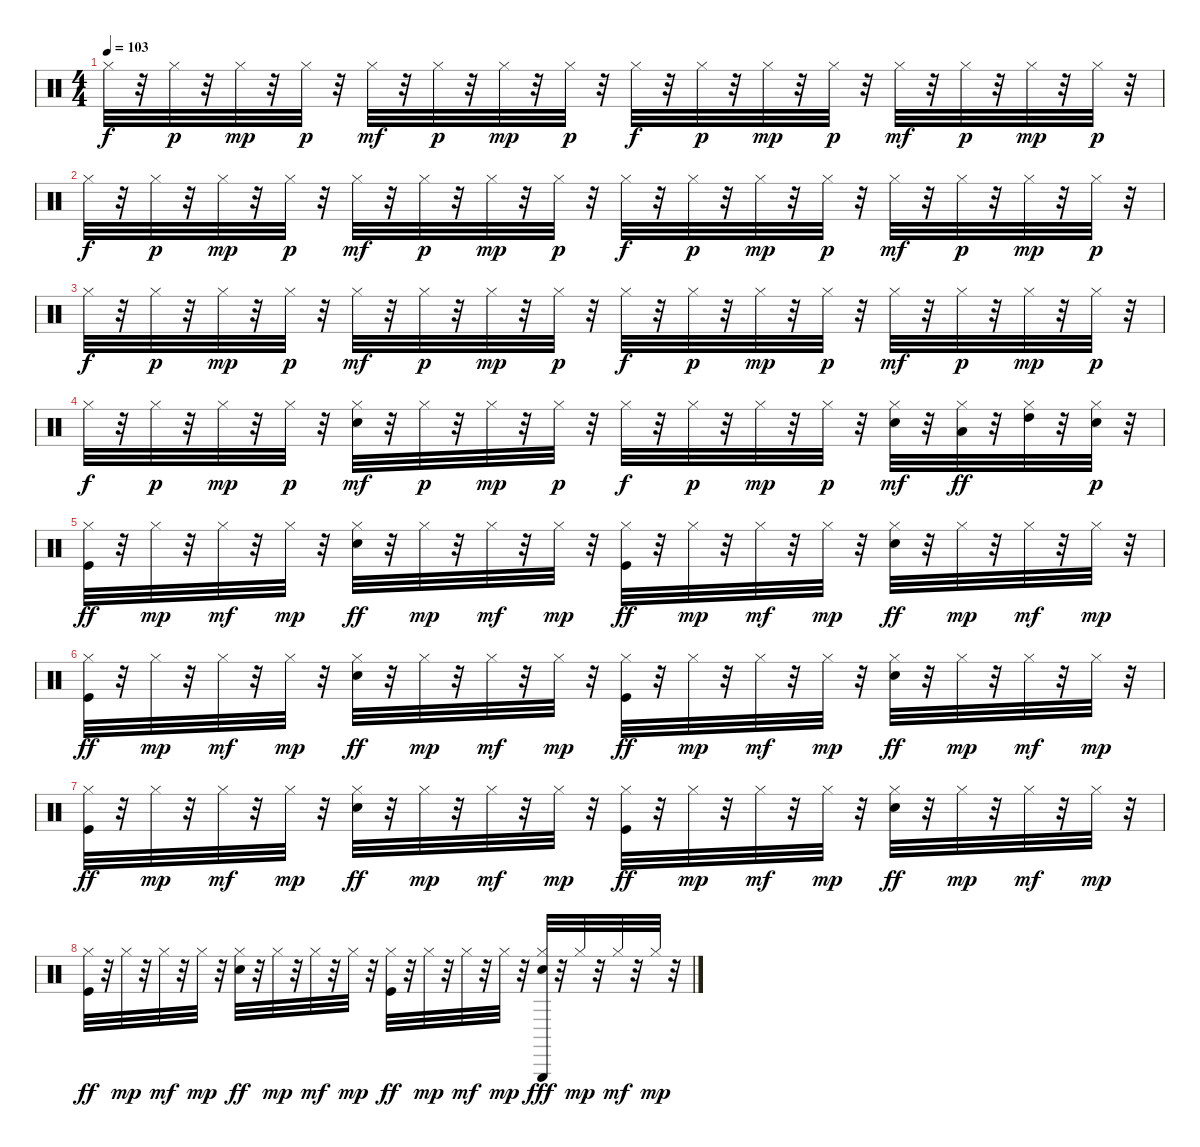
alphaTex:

\track "" {instrument percussion}
\staff {score}
\articulation defaults
\ts (4 4)
\tempo 103
\clef neutral
\ks c "Hi-Hat (closed)".32{dy f}
r.32 "Hi-Hat (closed)".32{dy p} r.32 "Hi-Hat (closed)".32{dy mp} r.32 "Hi-Hat (closed)".32{dy p} r.32 "Hi-Hat (closed)".32{dy mf} r.32 "Hi-Hat (closed)".32{dy p} r.32 "Hi-Hat (closed)".32{dy mp} r.32 "Hi-Hat (closed)".32{dy p} r.32 "Hi-Hat (closed)".32{dy f} r.32 "Hi-Hat (closed)".32{dy p} r.32 "Hi-Hat (closed)".32{dy mp} r.32 "Hi-Hat (closed)".32{dy p} r.32 "Hi-Hat (closed)".32{dy mf} r.32 "Hi-Hat (closed)".32{dy p} r.32 "Hi-Hat (closed)".32{dy mp} r.32 "Hi-Hat (closed)".32{dy p} r.32 |
"Hi-Hat (closed)".32{dy f} r.32 "Hi-Hat (closed)".32{dy p} r.32 "Hi-Hat (closed)".32{dy mp} r.32 "Hi-Hat (closed)".32{dy p} r.32 "Hi-Hat (closed)".32{dy mf} r.32 "Hi-Hat (closed)".32{dy p} r.32 "Hi-Hat (closed)".32{dy mp} r.32 "Hi-Hat (closed)".32{dy p} r.32 "Hi-Hat (closed)".32{dy f} r.32 "Hi-Hat (closed)".32{dy p} r.32 "Hi-Hat (closed)".32{dy mp} r.32 "Hi-Hat (closed)".32{dy p} r.32 "Hi-Hat (closed)".32{dy mf} r.32 "Hi-Hat (closed)".32{dy p} r.32 "Hi-Hat (closed)".32{dy mp} r.32 "Hi-Hat (closed)".32{dy p} r.32 |
"Hi-Hat (closed)".32{dy f} r.32 "Hi-Hat (closed)".32{dy p} r.32 "Hi-Hat (closed)".32{dy mp} r.32 "Hi-Hat (closed)".32{dy p} r.32 "Hi-Hat (closed)".32{dy mf} r.32 "Hi-Hat (closed)".32{dy p} r.32 "Hi-Hat (closed)".32{dy mp} r.32 "Hi-Hat (closed)".32{dy p} r.32 "Hi-Hat (closed)".32{dy f} r.32 "Hi-Hat (closed)".32{dy p} r.32 "Hi-Hat (closed)".32{dy mp} r.32 "Hi-Hat (closed)".32{dy p} r.32 "Hi-Hat (closed)".32{dy mf} r.32 "Hi-Hat (closed)".32{dy p} r.32 "Hi-Hat (closed)".32{dy mp} r.32 "Hi-Hat (closed)".32{dy p} r.32 |
"Hi-Hat (closed)".32{dy f} r.32 "Hi-Hat (closed)".32{dy p} r.32 "Hi-Hat (closed)".32{dy mp} r.32 "Hi-Hat (closed)".32{dy p} r.32 ("Snare (hit) 2" "Hi-Hat (closed)").32{dy mf} r.32 "Hi-Hat (closed)".32{dy p} r.32 "Hi-Hat (closed)".32{dy mp} r.32 "Hi-Hat (closed)".32{dy p} r.32 "Hi-Hat (closed)".32{dy f} r.32 "Hi-Hat (closed)".32{dy p} r.32 "Hi-Hat (closed)".32{dy mp} r.32 "Hi-Hat (closed)".32{dy p} r.32 ("Snare (hit) 2" "Hi-Hat (closed)").32{dy mf} r.32 ("Hi-Hat (closed)" "Low Tom (hit)").32{dy ff} r.32 ("Hi-Hat (closed)" "High Tom (hit)").32 r.32 ("Snare (hit) 2" "Hi-Hat (closed)").32{dy p} r.32 |
("Kick (hit)" "Hi-Hat (closed)").32{dy ff} r.32 "Hi-Hat (closed)".32{dy mp} r.32 "Hi-Hat (closed)".32{dy mf} r.32 "Hi-Hat (closed)".32{dy mp} r.32 ("Snare (hit) 2" "Hi-Hat (closed)").32{dy ff} r.32 "Hi-Hat (closed)".32{dy mp} r.32 "Hi-Hat (closed)".32{dy mf} r.32 "Hi-Hat (closed)".32{dy mp} r.32 ("Kick (hit)" "Hi-Hat (closed)").32{dy ff} r.32 "Hi-Hat (closed)".32{dy mp} r.32 "Hi-Hat (closed)".32{dy mf} r.32 "Hi-Hat (closed)".32{dy mp} r.32 ("Snare (hit) 2" "Hi-Hat (closed)").32{dy ff} r.32 "Hi-Hat (closed)".32{dy mp} r.32 "Hi-Hat (closed)".32{dy mf} r.32 "Hi-Hat (closed)".32{dy mp} r.32 |
("Kick (hit)" "Hi-Hat (closed)").32{dy ff} r.32 "Hi-Hat (closed)".32{dy mp} r.32 "Hi-Hat (closed)".32{dy mf} r.32 "Hi-Hat (closed)".32{dy mp} r.32 ("Snare (hit) 2" "Hi-Hat (closed)").32{dy ff} r.32 "Hi-Hat (closed)".32{dy mp} r.32 "Hi-Hat (closed)".32{dy mf} r.32 "Hi-Hat (closed)".32{dy mp} r.32 ("Kick (hit)" "Hi-Hat (closed)").32{dy ff} r.32 "Hi-Hat (closed)".32{dy mp} r.32 "Hi-Hat (closed)".32{dy mf} r.32 "Hi-Hat (closed)".32{dy mp} r.32 ("Snare (hit) 2" "Hi-Hat (closed)").32{dy ff} r.32 "Hi-Hat (closed)".32{dy mp} r.32 "Hi-Hat (closed)".32{dy mf} r.32 "Hi-Hat (closed)".32{dy mp} r.32 |
("Kick (hit)" "Hi-Hat (closed)").32{dy ff} r.32 "Hi-Hat (closed)".32{dy mp} r.32 "Hi-Hat (closed)".32{dy mf} r.32 "Hi-Hat (closed)".32{dy mp} r.32 ("Snare (hit) 2" "Hi-Hat (closed)").32{dy ff} r.32 "Hi-Hat (closed)".32{dy mp} r.32 "Hi-Hat (closed)".32{dy mf} r.32 "Hi-Hat (closed)".32{dy mp} r.32 ("Kick (hit)" "Hi-Hat (closed)").32{dy ff} r.32 "Hi-Hat (closed)".32{dy mp} r.32 "Hi-Hat (closed)".32{dy mf} r.32 "Hi-Hat (closed)".32{dy mp} r.32 ("Snare (hit) 2" "Hi-Hat (closed)").32{dy ff} r.32 "Hi-Hat (closed)".32{dy mp} r.32 "Hi-Hat (closed)".32{dy mf} r.32 "Hi-Hat (closed)".32{dy mp} r.32 |
("Kick (hit)" "Hi-Hat (closed)").32{dy ff} r.32 "Hi-Hat (closed)".32{dy mp} r.32 "Hi-Hat (closed)".32{dy mf} r.32 "Hi-Hat (closed)".32{dy mp} r.32 ("Snare (hit) 2" "Hi-Hat (closed)").32{dy ff} r.32 "Hi-Hat (closed)".32{dy mp} r.32 "Hi-Hat (closed)".32{dy mf} r.32 "Hi-Hat (closed)".32{dy mp} r.32 ("Kick (hit)" "Hi-Hat (closed)").32{dy ff} r.32 "Hi-Hat (closed)".32{dy mp} r.32 "Hi-Hat (closed)".32{dy mf} r.32 "Hi-Hat (closed)".32{dy mp} r.32 ("Snare (hit) 2" "Hi-Hat (closed)" "Triangle (hit)").32{dy fff} r.32 "Hi-Hat (closed)".32{dy mp} r.32 "Hi-Hat (closed)".32{dy mf} r.32 "Hi-Hat (closed)".32{dy mp} r.32
